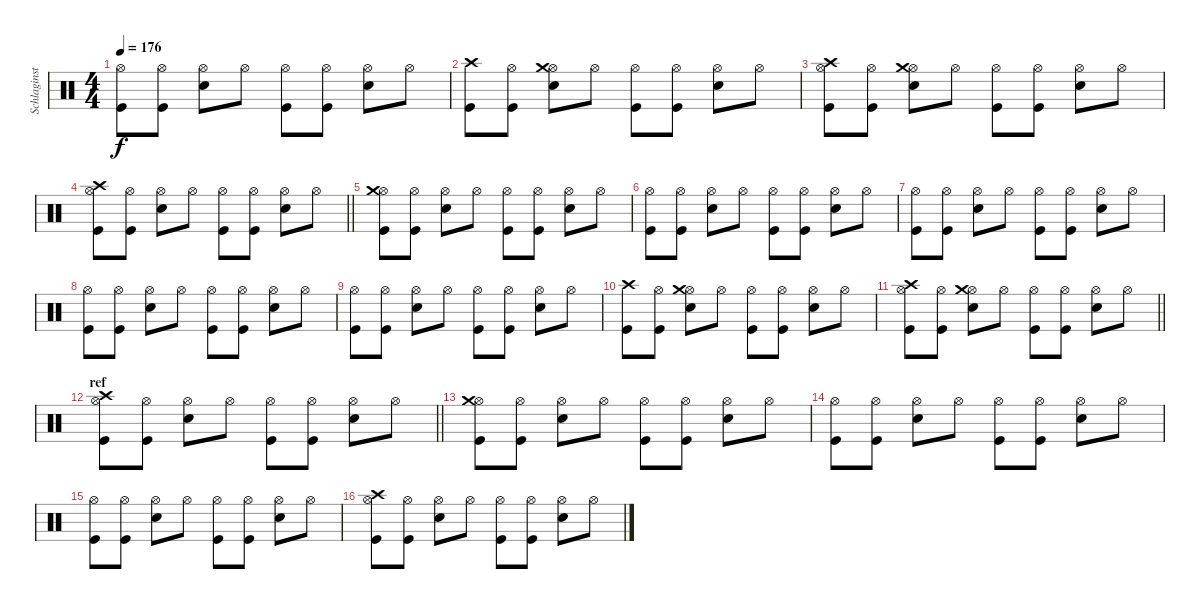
\track ("Schlaginstrumente - Auswahl" "Schlaginst") {instrument percussion}
\staff {score}
\articulation defaults
\ts (4 4)
\tempo 176
\clef neutral
\ks c
("Hi-Hat (open)" "Kick (hit)").8{dy f} ("Hi-Hat (open)" "Kick (hit)").8 ("Hi-Hat (open)" "Snare (hit) 2").8 "Hi-Hat (open)".8 ("Hi-Hat (open)" "Kick (hit)").8 ("Hi-Hat (open)" "Kick (hit)").8 ("Hi-Hat (open)" "Snare (hit) 2").8 "Hi-Hat (open)".8 |
("Crash high (hit)" "Kick (hit)").8 ("Hi-Hat (open)" "Kick (hit)").8 ("Hi-Hat (open)" "Snare (hit) 2" "Crash medium (hit)").8 "Hi-Hat (open)".8 ("Hi-Hat (open)" "Kick (hit)").8 ("Hi-Hat (open)" "Kick (hit)").8 ("Hi-Hat (open)" "Snare (hit) 2").8 "Hi-Hat (open)".8 |
("Hi-Hat (open)" "Kick (hit)" "Crash high (hit)").8 ("Hi-Hat (open)" "Kick (hit)").8 ("Hi-Hat (open)" "Snare (hit) 2" "Crash medium (hit)").8 "Hi-Hat (open)".8 ("Hi-Hat (open)" "Kick (hit)").8 ("Hi-Hat (open)" "Kick (hit)").8 ("Hi-Hat (open)" "Snare (hit) 2").8 "Hi-Hat (open)".8 |
\barLineRight lightlight
("Kick (hit)" "Hi-Hat (open)" "Crash high (hit)").8 ("Kick (hit)" "Hi-Hat (open)").8 ("Hi-Hat (open)" "Snare (hit) 2").8 "Hi-Hat (open)".8 ("Hi-Hat (open)" "Kick (hit)").8 ("Hi-Hat (open)" "Kick (hit)").8 ("Hi-Hat (open)" "Snare (hit) 2").8 "Hi-Hat (open)".8 |
("Kick (hit)" "Hi-Hat (open)" "Crash medium (hit)").8 ("Kick (hit)" "Hi-Hat (open)").8 ("Hi-Hat (open)" "Snare (hit) 2").8 "Hi-Hat (open)".8 ("Hi-Hat (open)" "Kick (hit)").8 ("Hi-Hat (open)" "Kick (hit)").8 ("Hi-Hat (open)" "Snare (hit) 2").8 "Hi-Hat (open)".8 |
("Hi-Hat (open)" "Kick (hit)").8 ("Hi-Hat (open)" "Kick (hit)").8 ("Hi-Hat (open)" "Snare (hit) 2").8 "Hi-Hat (open)".8 ("Hi-Hat (open)" "Kick (hit)").8 ("Hi-Hat (open)" "Kick (hit)").8 ("Hi-Hat (open)" "Snare (hit) 2").8 "Hi-Hat (open)".8 |
("Hi-Hat (open)" "Kick (hit)").8 ("Hi-Hat (open)" "Kick (hit)").8 ("Hi-Hat (open)" "Snare (hit) 2").8 "Hi-Hat (open)".8 ("Hi-Hat (open)" "Kick (hit)").8 ("Hi-Hat (open)" "Kick (hit)").8 ("Hi-Hat (open)" "Snare (hit) 2").8 "Hi-Hat (open)".8 |
("Hi-Hat (open)" "Kick (hit)").8 ("Hi-Hat (open)" "Kick (hit)").8 ("Hi-Hat (open)" "Snare (hit) 2").8 "Hi-Hat (open)".8 ("Hi-Hat (open)" "Kick (hit)").8 ("Hi-Hat (open)" "Kick (hit)").8 ("Hi-Hat (open)" "Snare (hit) 2").8 "Hi-Hat (open)".8 |
("Hi-Hat (open)" "Kick (hit)").8 ("Hi-Hat (open)" "Kick (hit)").8 ("Hi-Hat (open)" "Snare (hit) 2").8 "Hi-Hat (open)".8 ("Hi-Hat (open)" "Kick (hit)").8 ("Hi-Hat (open)" "Kick (hit)").8 ("Hi-Hat (open)" "Snare (hit) 2").8 "Hi-Hat (open)".8 |
("Crash high (hit)" "Kick (hit)").8 ("Hi-Hat (open)" "Kick (hit)").8 ("Hi-Hat (open)" "Snare (hit) 2" "Crash medium (hit)").8 "Hi-Hat (open)".8 ("Hi-Hat (open)" "Kick (hit)").8 ("Hi-Hat (open)" "Kick (hit)").8 ("Hi-Hat (open)" "Snare (hit) 2").8 "Hi-Hat (open)".8 |
\barLineRight lightlight
("Hi-Hat (open)" "Kick (hit)" "Crash high (hit)").8 ("Hi-Hat (open)" "Kick (hit)").8 ("Hi-Hat (open)" "Snare (hit) 2" "Crash medium (hit)").8 "Hi-Hat (open)".8 ("Hi-Hat (open)" "Kick (hit)").8 ("Hi-Hat (open)" "Kick (hit)").8 ("Hi-Hat (open)" "Snare (hit) 2").8 "Hi-Hat (open)".8 |
\section ("" "ref")
\barLineRight lightlight
("Kick (hit)" "Hi-Hat (open)" "Crash high (hit)").8 ("Kick (hit)" "Hi-Hat (open)").8 ("Hi-Hat (open)" "Snare (hit) 2").8 "Hi-Hat (open)".8 ("Hi-Hat (open)" "Kick (hit)").8 ("Hi-Hat (open)" "Kick (hit)").8 ("Hi-Hat (open)" "Snare (hit) 2").8 "Hi-Hat (open)".8 |
("Kick (hit)" "Hi-Hat (open)" "Crash medium (hit)").8 ("Kick (hit)" "Hi-Hat (open)").8 ("Hi-Hat (open)" "Snare (hit) 2").8 "Hi-Hat (open)".8 ("Hi-Hat (open)" "Kick (hit)").8 ("Hi-Hat (open)" "Kick (hit)").8 ("Hi-Hat (open)" "Snare (hit) 2").8 "Hi-Hat (open)".8 |
("Hi-Hat (open)" "Kick (hit)").8 ("Hi-Hat (open)" "Kick (hit)").8 ("Hi-Hat (open)" "Snare (hit) 2").8 "Hi-Hat (open)".8 ("Hi-Hat (open)" "Kick (hit)").8 ("Hi-Hat (open)" "Kick (hit)").8 ("Hi-Hat (open)" "Snare (hit) 2").8 "Hi-Hat (open)".8 |
("Hi-Hat (open)" "Kick (hit)").8 ("Hi-Hat (open)" "Kick (hit)").8 ("Hi-Hat (open)" "Snare (hit) 2").8 "Hi-Hat (open)".8 ("Hi-Hat (open)" "Kick (hit)").8 ("Hi-Hat (open)" "Kick (hit)").8 ("Hi-Hat (open)" "Snare (hit) 2").8 "Hi-Hat (open)".8 |
("Hi-Hat (open)" "Kick (hit)" "Crash high (hit)").8 ("Hi-Hat (open)" "Kick (hit)").8 ("Hi-Hat (open)" "Snare (hit) 2").8 "Hi-Hat (open)".8 ("Hi-Hat (open)" "Kick (hit)").8 ("Hi-Hat (open)" "Kick (hit)").8 ("Hi-Hat (open)" "Snare (hit) 2").8 "Hi-Hat (open)".8
